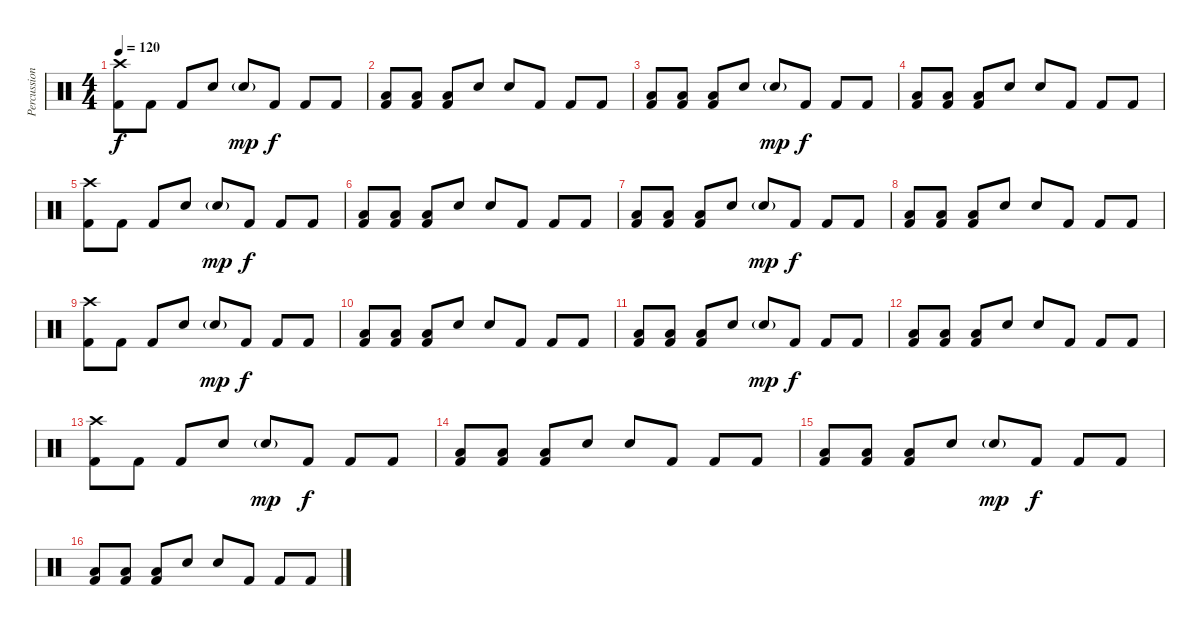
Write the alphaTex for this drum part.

\track ("Percussion" "Percussion") {instrument percussion}
\staff {score}
\articulation defaults
\ts (4 4)
\tempo 120
\clef neutral
\ks c
("Kick (hit) 2" "Crash high (hit)").8{dy f} "Kick (hit) 2".8 "Kick (hit) 2".8 "Electric Snare (hit)".8 "Electric Snare (hit)"{g}.8{dy mp} "Kick (hit) 2".8{dy f} "Kick (hit) 2".8 "Kick (hit) 2".8 |
("Kick (hit) 2" "Low Floor Tom (hit)").8 ("Kick (hit) 2" "Low Floor Tom (hit)").8 ("Kick (hit) 2" "Low Floor Tom (hit)").8 "Electric Snare (hit)".8 "Electric Snare (hit)".8 "Kick (hit) 2".8 "Kick (hit) 2".8 "Kick (hit) 2".8 |
("Kick (hit) 2" "Low Floor Tom (hit)").8 ("Kick (hit) 2" "Low Floor Tom (hit)").8 ("Kick (hit) 2" "Low Floor Tom (hit)").8 "Electric Snare (hit)".8 "Electric Snare (hit)"{g}.8{dy mp} "Kick (hit) 2".8{dy f} "Kick (hit) 2".8 "Kick (hit) 2".8 |
("Kick (hit) 2" "Low Floor Tom (hit)").8 ("Kick (hit) 2" "Low Floor Tom (hit)").8 ("Kick (hit) 2" "Low Floor Tom (hit)").8 "Electric Snare (hit)".8 "Electric Snare (hit)".8 "Kick (hit) 2".8 "Kick (hit) 2".8 "Kick (hit) 2".8 |
("Kick (hit) 2" "Crash high (hit)").8 "Kick (hit) 2".8 "Kick (hit) 2".8 "Electric Snare (hit)".8 "Electric Snare (hit)"{g}.8{dy mp} "Kick (hit) 2".8{dy f} "Kick (hit) 2".8 "Kick (hit) 2".8 |
("Kick (hit) 2" "Low Floor Tom (hit)").8 ("Kick (hit) 2" "Low Floor Tom (hit)").8 ("Kick (hit) 2" "Low Floor Tom (hit)").8 "Electric Snare (hit)".8 "Electric Snare (hit)".8 "Kick (hit) 2".8 "Kick (hit) 2".8 "Kick (hit) 2".8 |
("Kick (hit) 2" "Low Floor Tom (hit)").8 ("Kick (hit) 2" "Low Floor Tom (hit)").8 ("Kick (hit) 2" "Low Floor Tom (hit)").8 "Electric Snare (hit)".8 "Electric Snare (hit)"{g}.8{dy mp} "Kick (hit) 2".8{dy f} "Kick (hit) 2".8 "Kick (hit) 2".8 |
("Kick (hit) 2" "Low Floor Tom (hit)").8 ("Kick (hit) 2" "Low Floor Tom (hit)").8 ("Kick (hit) 2" "Low Floor Tom (hit)").8 "Electric Snare (hit)".8 "Electric Snare (hit)".8 "Kick (hit) 2".8 "Kick (hit) 2".8 "Kick (hit) 2".8 |
("Kick (hit) 2" "Crash high (hit)").8 "Kick (hit) 2".8 "Kick (hit) 2".8 "Electric Snare (hit)".8 "Electric Snare (hit)"{g}.8{dy mp} "Kick (hit) 2".8{dy f} "Kick (hit) 2".8 "Kick (hit) 2".8 |
("Kick (hit) 2" "Low Floor Tom (hit)").8 ("Kick (hit) 2" "Low Floor Tom (hit)").8 ("Kick (hit) 2" "Low Floor Tom (hit)").8 "Electric Snare (hit)".8 "Electric Snare (hit)".8 "Kick (hit) 2".8 "Kick (hit) 2".8 "Kick (hit) 2".8 |
("Kick (hit) 2" "Low Floor Tom (hit)").8 ("Kick (hit) 2" "Low Floor Tom (hit)").8 ("Kick (hit) 2" "Low Floor Tom (hit)").8 "Electric Snare (hit)".8 "Electric Snare (hit)"{g}.8{dy mp} "Kick (hit) 2".8{dy f} "Kick (hit) 2".8 "Kick (hit) 2".8 |
("Kick (hit) 2" "Low Floor Tom (hit)").8 ("Kick (hit) 2" "Low Floor Tom (hit)").8 ("Kick (hit) 2" "Low Floor Tom (hit)").8 "Electric Snare (hit)".8 "Electric Snare (hit)".8 "Kick (hit) 2".8 "Kick (hit) 2".8 "Kick (hit) 2".8 |
("Kick (hit) 2" "Crash high (hit)").8 "Kick (hit) 2".8 "Kick (hit) 2".8 "Electric Snare (hit)".8 "Electric Snare (hit)"{g}.8{dy mp} "Kick (hit) 2".8{dy f} "Kick (hit) 2".8 "Kick (hit) 2".8 |
("Kick (hit) 2" "Low Floor Tom (hit)").8 ("Kick (hit) 2" "Low Floor Tom (hit)").8 ("Kick (hit) 2" "Low Floor Tom (hit)").8 "Electric Snare (hit)".8 "Electric Snare (hit)".8 "Kick (hit) 2".8 "Kick (hit) 2".8 "Kick (hit) 2".8 |
("Kick (hit) 2" "Low Floor Tom (hit)").8 ("Kick (hit) 2" "Low Floor Tom (hit)").8 ("Kick (hit) 2" "Low Floor Tom (hit)").8 "Electric Snare (hit)".8 "Electric Snare (hit)"{g}.8{dy mp} "Kick (hit) 2".8{dy f} "Kick (hit) 2".8 "Kick (hit) 2".8 |
("Kick (hit) 2" "Low Floor Tom (hit)").8 ("Kick (hit) 2" "Low Floor Tom (hit)").8 ("Kick (hit) 2" "Low Floor Tom (hit)").8 "Electric Snare (hit)".8 "Electric Snare (hit)".8 "Kick (hit) 2".8 "Kick (hit) 2".8 "Kick (hit) 2".8
